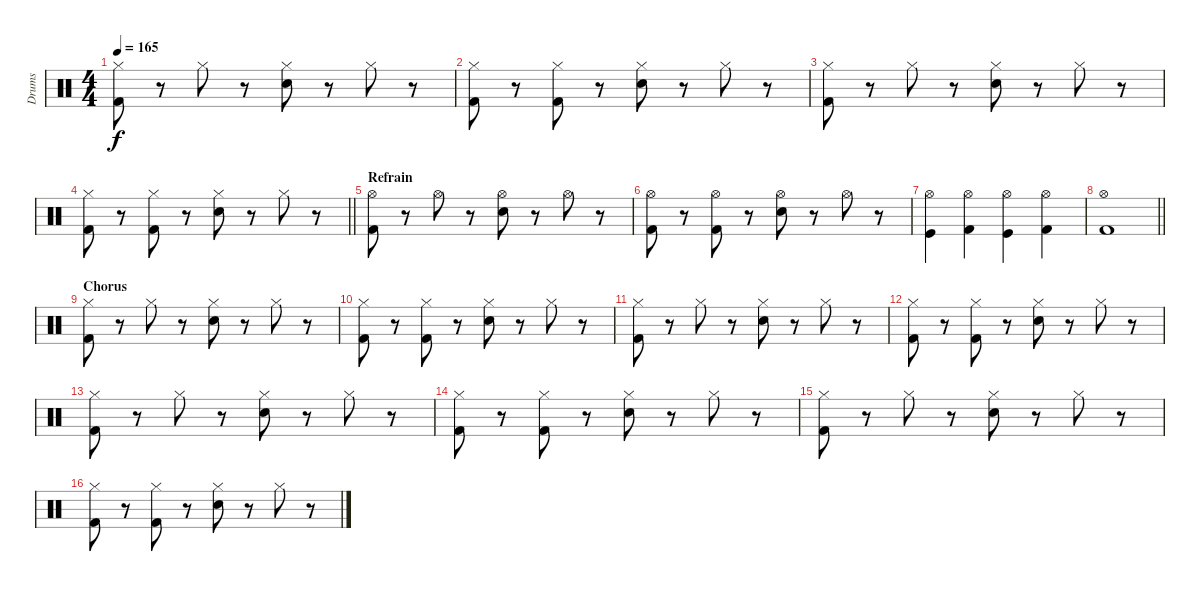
\track ("Drums" "Drums") {instrument percussion}
\staff {score}
\articulation defaults
\ts (4 4)
\tempo 165
\clef neutral
\ks c
("Hi-Hat (closed)" "Kick (hit) 2").8{dy f} r.8 "Hi-Hat (closed)".8 r.8 ("Hi-Hat (closed)" "Electric Snare (hit)").8 r.8 "Hi-Hat (closed)".8 r.8 |
("Hi-Hat (closed)" "Kick (hit) 2").8 r.8 ("Hi-Hat (closed)" "Kick (hit) 2").8 r.8 ("Hi-Hat (closed)" "Electric Snare (hit)").8 r.8 "Hi-Hat (closed)".8 r.8 |
("Hi-Hat (closed)" "Kick (hit) 2").8 r.8 "Hi-Hat (closed)".8 r.8 ("Hi-Hat (closed)" "Electric Snare (hit)").8 r.8 "Hi-Hat (closed)".8 r.8 |
\barLineRight lightlight
("Hi-Hat (closed)" "Kick (hit) 2").8 r.8 ("Hi-Hat (closed)" "Kick (hit) 2").8 r.8 ("Hi-Hat (closed)" "Electric Snare (hit)").8 r.8 "Hi-Hat (closed)".8 r.8 |
\section ("" "Refrain")
("Hi-Hat (open)" "Kick (hit) 2").8 r.8 "Hi-Hat (open)".8 r.8 ("Hi-Hat (open)" "Electric Snare (hit)").8 r.8 "Hi-Hat (open)".8 r.8 |
("Hi-Hat (open)" "Kick (hit) 2").8 r.8 ("Hi-Hat (open)" "Kick (hit) 2").8 r.8 ("Hi-Hat (open)" "Electric Snare (hit)").8 r.8 "Hi-Hat (open)".8 r.8 |
("Hi-Hat (open)" "Kick (hit)").4 ("Hi-Hat (open)" "Kick (hit) 2").4 ("Hi-Hat (open)" "Kick (hit)").4 ("Hi-Hat (open)" "Kick (hit) 2").4 |
\barLineRight lightlight
("Hi-Hat (open)" "Kick (hit) 2").1 |
\section ("" "Chorus")
("Hi-Hat (closed)" "Kick (hit) 2").8 r.8 "Hi-Hat (closed)".8 r.8 ("Hi-Hat (closed)" "Electric Snare (hit)").8 r.8 "Hi-Hat (closed)".8 r.8 |
("Hi-Hat (closed)" "Kick (hit) 2").8 r.8 ("Hi-Hat (closed)" "Kick (hit) 2").8 r.8 ("Hi-Hat (closed)" "Electric Snare (hit)").8 r.8 "Hi-Hat (closed)".8 r.8 |
("Hi-Hat (closed)" "Kick (hit) 2").8 r.8 "Hi-Hat (closed)".8 r.8 ("Hi-Hat (closed)" "Electric Snare (hit)").8 r.8 "Hi-Hat (closed)".8 r.8 |
("Hi-Hat (closed)" "Kick (hit) 2").8 r.8 ("Hi-Hat (closed)" "Kick (hit) 2").8 r.8 ("Hi-Hat (closed)" "Electric Snare (hit)").8 r.8 "Hi-Hat (closed)".8 r.8 |
("Hi-Hat (closed)" "Kick (hit) 2").8 r.8 "Hi-Hat (closed)".8 r.8 ("Hi-Hat (closed)" "Electric Snare (hit)").8 r.8 "Hi-Hat (closed)".8 r.8 |
("Hi-Hat (closed)" "Kick (hit) 2").8 r.8 ("Hi-Hat (closed)" "Kick (hit) 2").8 r.8 ("Hi-Hat (closed)" "Electric Snare (hit)").8 r.8 "Hi-Hat (closed)".8 r.8 |
("Hi-Hat (closed)" "Kick (hit) 2").8 r.8 "Hi-Hat (closed)".8 r.8 ("Hi-Hat (closed)" "Electric Snare (hit)").8 r.8 "Hi-Hat (closed)".8 r.8 |
("Hi-Hat (closed)" "Kick (hit) 2").8 r.8 ("Hi-Hat (closed)" "Kick (hit) 2").8 r.8 ("Hi-Hat (closed)" "Electric Snare (hit)").8 r.8 "Hi-Hat (closed)".8 r.8
